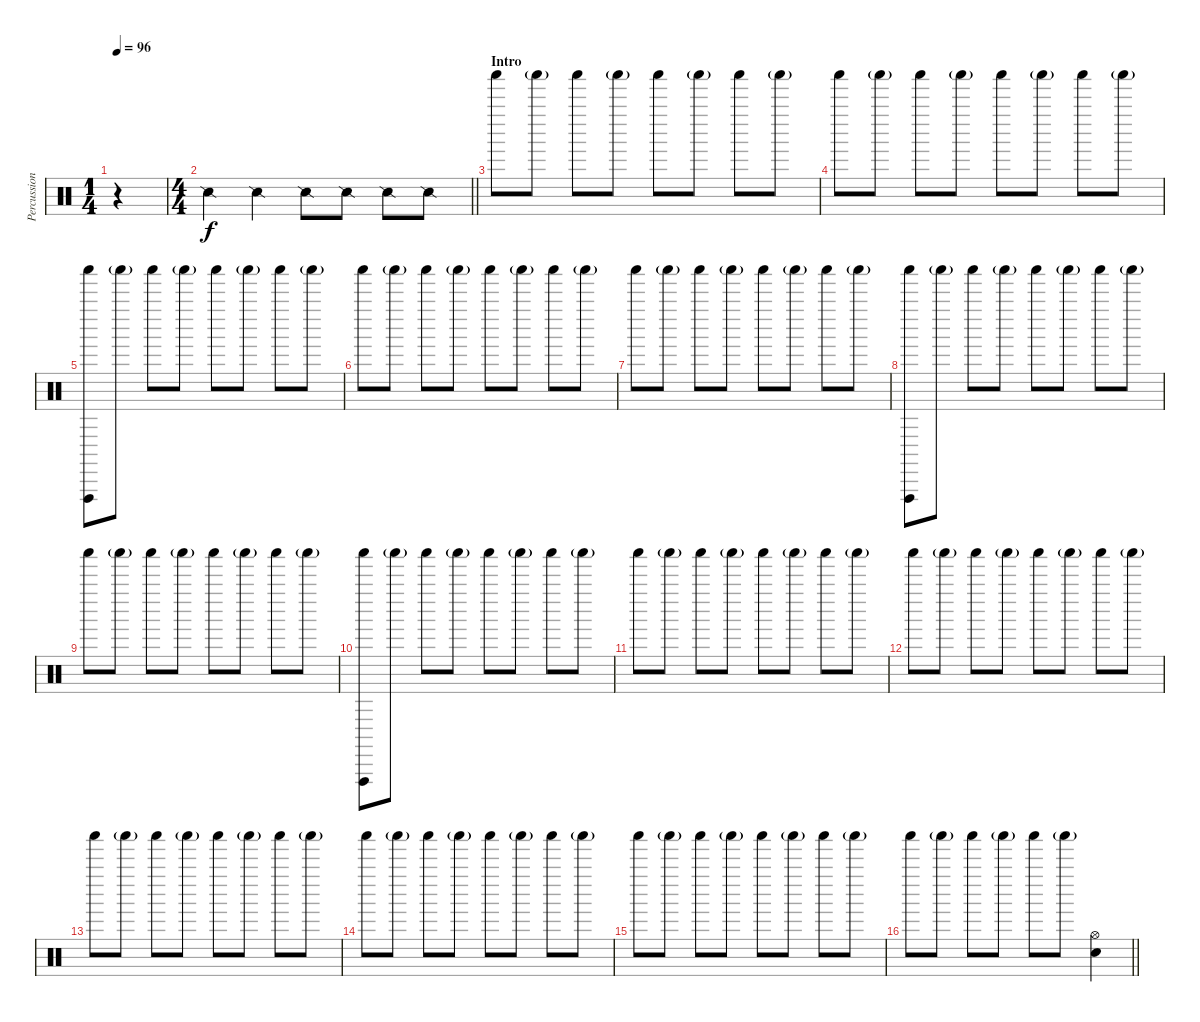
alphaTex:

\track ("Percussion" "Percussion") {instrument percussion}
\staff {score}
\articulation defaults
\voice
\ts (1 4)
\tempo 96
\clef neutral
\ks c
r.4{dy f} |
\ts (4 4)
\barLineRight lightlight "Snare (side stick) 2".4 "Snare (side stick) 2".4 "Snare (side stick) 2".8 "Snare (side stick) 2".8 "Snare (side stick) 2".8 "Snare (side stick) 2".8
|
\section ("" "Intro")
"Shaker (hit)".8 "Shaker (hit)"{g}.8 "Shaker (hit)".8 "Shaker (hit)"{g}.8 "Shaker (hit)".8 "Shaker (hit)"{g}.8 "Shaker (hit)".8 "Shaker (hit)"{g}.8 |
"Shaker (hit)".8 "Shaker (hit)"{g}.8 "Shaker (hit)".8 "Shaker (hit)"{g}.8 "Shaker (hit)".8 "Shaker (hit)"{g}.8 "Shaker (hit)".8 "Shaker (hit)"{g}.8 |
("Shaker (hit)" "Vibraslap (hit)").8 "Shaker (hit)"{g}.8 "Shaker (hit)".8 "Shaker (hit)"{g}.8 "Shaker (hit)".8 "Shaker (hit)"{g}.8 "Shaker (hit)".8 "Shaker (hit)"{g}.8 |
"Shaker (hit)".8 "Shaker (hit)"{g}.8 "Shaker (hit)".8 "Shaker (hit)"{g}.8 "Shaker (hit)".8 "Shaker (hit)"{g}.8 "Shaker (hit)".8 "Shaker (hit)"{g}.8 |
"Shaker (hit)".8 "Shaker (hit)"{g}.8 "Shaker (hit)".8 "Shaker (hit)"{g}.8 "Shaker (hit)".8 "Shaker (hit)"{g}.8 "Shaker (hit)".8 "Shaker (hit)"{g}.8 |
("Shaker (hit)" "Vibraslap (hit)").8 "Shaker (hit)"{g}.8 "Shaker (hit)".8 "Shaker (hit)"{g}.8 "Shaker (hit)".8 "Shaker (hit)"{g}.8 "Shaker (hit)".8 "Shaker (hit)"{g}.8 |
"Shaker (hit)".8 "Shaker (hit)"{g}.8 "Shaker (hit)".8 "Shaker (hit)"{g}.8 "Shaker (hit)".8 "Shaker (hit)"{g}.8 "Shaker (hit)".8 "Shaker (hit)"{g}.8 |
("Shaker (hit)" "Vibraslap (hit)").8 "Shaker (hit)"{g}.8 "Shaker (hit)".8 "Shaker (hit)"{g}.8 "Shaker (hit)".8 "Shaker (hit)"{g}.8 "Shaker (hit)".8 "Shaker (hit)"{g}.8 |
"Shaker (hit)".8 "Shaker (hit)"{g}.8 "Shaker (hit)".8 "Shaker (hit)"{g}.8 "Shaker (hit)".8 "Shaker (hit)"{g}.8 "Shaker (hit)".8 "Shaker (hit)"{g}.8 |
"Shaker (hit)".8 "Shaker (hit)"{g}.8 "Shaker (hit)".8 "Shaker (hit)"{g}.8 "Shaker (hit)".8 "Shaker (hit)"{g}.8 "Shaker (hit)".8 "Shaker (hit)"{g}.8 |
"Shaker (hit)".8 "Shaker (hit)"{g}.8 "Shaker (hit)".8 "Shaker (hit)"{g}.8 "Shaker (hit)".8 "Shaker (hit)"{g}.8 "Shaker (hit)".8 "Shaker (hit)"{g}.8 |
"Shaker (hit)".8 "Shaker (hit)"{g}.8 "Shaker (hit)".8 "Shaker (hit)"{g}.8 "Shaker (hit)".8 "Shaker (hit)"{g}.8 "Shaker (hit)".8 "Shaker (hit)"{g}.8 |
"Shaker (hit)".8 "Shaker (hit)"{g}.8 "Shaker (hit)".8 "Shaker (hit)"{g}.8 "Shaker (hit)".8 "Shaker (hit)"{g}.8 "Shaker (hit)".8 "Shaker (hit)"{g}.8 |
\barLineRight lightlight "Shaker (hit)".8 "Shaker (hit)"{g}.8 "Shaker (hit)".8 "Shaker (hit)"{g}.8 "Shaker (hit)".8 "Shaker (hit)"{g}.8
("Hi-Hat (open)" "Snare (hit) 2").4
\voice
\clef neutral
\ottava regular
\simile none
\ks c
r.4{dy f} |
\barLineRight lightlight
|
|
|
|
|
|
|
|
|
|
|
|
|
|
\barLineRight lightlight
